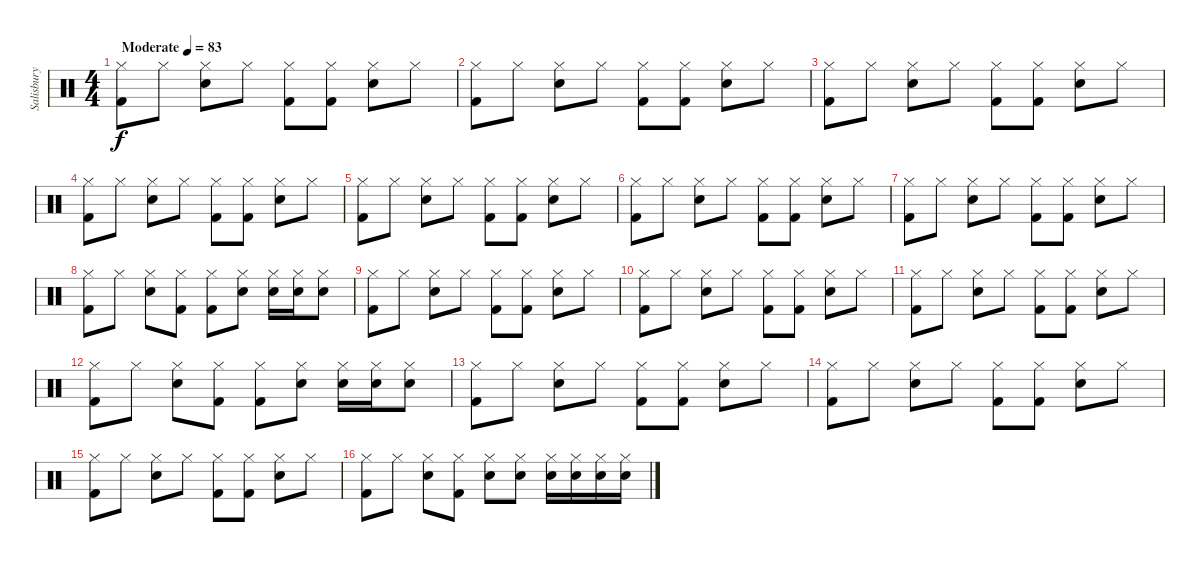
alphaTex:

\track ("Salisbury" "Salisbury") {instrument percussion}
\staff {score}
\articulation defaults
\ts (4 4)
\tempo (83 "Moderate")
\clef neutral
\ks c
("Hi-Hat (closed)" "Kick (hit) 2").8{dy f} "Hi-Hat (closed)".8 ("Hi-Hat (closed)" "Electric Snare (hit)").8 "Hi-Hat (closed)".8 ("Hi-Hat (closed)" "Kick (hit) 2").8 ("Hi-Hat (closed)" "Kick (hit) 2").8 ("Hi-Hat (closed)" "Electric Snare (hit)").8 "Hi-Hat (closed)".8 |
("Hi-Hat (closed)" "Kick (hit) 2").8 "Hi-Hat (closed)".8 ("Hi-Hat (closed)" "Electric Snare (hit)").8 "Hi-Hat (closed)".8 ("Hi-Hat (closed)" "Kick (hit) 2").8 ("Hi-Hat (closed)" "Kick (hit) 2").8 ("Hi-Hat (closed)" "Electric Snare (hit)").8 "Hi-Hat (closed)".8 |
("Hi-Hat (closed)" "Kick (hit) 2").8 "Hi-Hat (closed)".8 ("Hi-Hat (closed)" "Electric Snare (hit)").8 "Hi-Hat (closed)".8 ("Hi-Hat (closed)" "Kick (hit) 2").8 ("Hi-Hat (closed)" "Kick (hit) 2").8 ("Hi-Hat (closed)" "Electric Snare (hit)").8 "Hi-Hat (closed)".8 |
("Hi-Hat (closed)" "Kick (hit) 2").8 "Hi-Hat (closed)".8 ("Hi-Hat (closed)" "Electric Snare (hit)").8 "Hi-Hat (closed)".8 ("Hi-Hat (closed)" "Kick (hit) 2").8 ("Hi-Hat (closed)" "Kick (hit) 2").8 ("Hi-Hat (closed)" "Electric Snare (hit)").8 "Hi-Hat (closed)".8 |
("Hi-Hat (closed)" "Kick (hit) 2").8 "Hi-Hat (closed)".8 ("Hi-Hat (closed)" "Electric Snare (hit)").8 "Hi-Hat (closed)".8 ("Hi-Hat (closed)" "Kick (hit) 2").8 ("Hi-Hat (closed)" "Kick (hit) 2").8 ("Hi-Hat (closed)" "Electric Snare (hit)").8 "Hi-Hat (closed)".8 |
("Hi-Hat (closed)" "Kick (hit) 2").8 "Hi-Hat (closed)".8 ("Hi-Hat (closed)" "Electric Snare (hit)").8 "Hi-Hat (closed)".8 ("Hi-Hat (closed)" "Kick (hit) 2").8 ("Hi-Hat (closed)" "Kick (hit) 2").8 ("Hi-Hat (closed)" "Electric Snare (hit)").8 "Hi-Hat (closed)".8 |
("Hi-Hat (closed)" "Kick (hit) 2").8 "Hi-Hat (closed)".8 ("Hi-Hat (closed)" "Electric Snare (hit)").8 "Hi-Hat (closed)".8 ("Hi-Hat (closed)" "Kick (hit) 2").8 ("Hi-Hat (closed)" "Kick (hit) 2").8 ("Hi-Hat (closed)" "Electric Snare (hit)").8 "Hi-Hat (closed)".8 |
("Hi-Hat (closed)" "Kick (hit) 2").8 "Hi-Hat (closed)".8 ("Hi-Hat (closed)" "Electric Snare (hit)").8 ("Hi-Hat (closed)" "Kick (hit) 2").8 ("Hi-Hat (closed)" "Kick (hit) 2").8 ("Hi-Hat (closed)" "Electric Snare (hit)").8 ("Hi-Hat (closed)" "Electric Snare (hit)").16 ("Hi-Hat (closed)" "Electric Snare (hit)").16 ("Hi-Hat (closed)" "Electric Snare (hit)").8 |
("Hi-Hat (closed)" "Kick (hit) 2").8 "Hi-Hat (closed)".8 ("Hi-Hat (closed)" "Electric Snare (hit)").8 "Hi-Hat (closed)".8 ("Hi-Hat (closed)" "Kick (hit) 2").8 ("Hi-Hat (closed)" "Kick (hit) 2").8 ("Hi-Hat (closed)" "Electric Snare (hit)").8 "Hi-Hat (closed)".8 |
("Hi-Hat (closed)" "Kick (hit) 2").8 "Hi-Hat (closed)".8 ("Hi-Hat (closed)" "Electric Snare (hit)").8 "Hi-Hat (closed)".8 ("Hi-Hat (closed)" "Kick (hit) 2").8 ("Hi-Hat (closed)" "Kick (hit) 2").8 ("Hi-Hat (closed)" "Electric Snare (hit)").8 "Hi-Hat (closed)".8 |
("Hi-Hat (closed)" "Kick (hit) 2").8 "Hi-Hat (closed)".8 ("Hi-Hat (closed)" "Electric Snare (hit)").8 "Hi-Hat (closed)".8 ("Hi-Hat (closed)" "Kick (hit) 2").8 ("Hi-Hat (closed)" "Kick (hit) 2").8 ("Hi-Hat (closed)" "Electric Snare (hit)").8 "Hi-Hat (closed)".8 |
("Hi-Hat (closed)" "Kick (hit) 2").8 "Hi-Hat (closed)".8 ("Hi-Hat (closed)" "Electric Snare (hit)").8 ("Hi-Hat (closed)" "Kick (hit) 2").8 ("Hi-Hat (closed)" "Kick (hit) 2").8 ("Hi-Hat (closed)" "Electric Snare (hit)").8 ("Hi-Hat (closed)" "Electric Snare (hit)").16 ("Hi-Hat (closed)" "Electric Snare (hit)").16 ("Hi-Hat (closed)" "Electric Snare (hit)").8 |
("Hi-Hat (closed)" "Kick (hit) 2").8 "Hi-Hat (closed)".8 ("Hi-Hat (closed)" "Electric Snare (hit)").8 "Hi-Hat (closed)".8 ("Hi-Hat (closed)" "Kick (hit) 2").8 ("Hi-Hat (closed)" "Kick (hit) 2").8 ("Hi-Hat (closed)" "Electric Snare (hit)").8 "Hi-Hat (closed)".8 |
("Hi-Hat (closed)" "Kick (hit) 2").8 "Hi-Hat (closed)".8 ("Hi-Hat (closed)" "Electric Snare (hit)").8 "Hi-Hat (closed)".8 ("Hi-Hat (closed)" "Kick (hit) 2").8 ("Hi-Hat (closed)" "Kick (hit) 2").8 ("Hi-Hat (closed)" "Electric Snare (hit)").8 "Hi-Hat (closed)".8 |
("Hi-Hat (closed)" "Kick (hit) 2").8 "Hi-Hat (closed)".8 ("Hi-Hat (closed)" "Electric Snare (hit)").8 "Hi-Hat (closed)".8 ("Hi-Hat (closed)" "Kick (hit) 2").8 ("Hi-Hat (closed)" "Kick (hit) 2").8 ("Hi-Hat (closed)" "Electric Snare (hit)").8 "Hi-Hat (closed)".8 |
("Hi-Hat (closed)" "Kick (hit) 2").8 "Hi-Hat (closed)".8 ("Hi-Hat (closed)" "Electric Snare (hit)").8 ("Hi-Hat (closed)" "Kick (hit) 2").8 ("Hi-Hat (closed)" "Electric Snare (hit)").8 ("Hi-Hat (closed)" "Electric Snare (hit)").8 ("Hi-Hat (closed)" "Electric Snare (hit)").16 ("Hi-Hat (closed)" "Electric Snare (hit)").16 ("Hi-Hat (closed)" "Electric Snare (hit)").16 ("Hi-Hat (closed)" "Electric Snare (hit)").16
